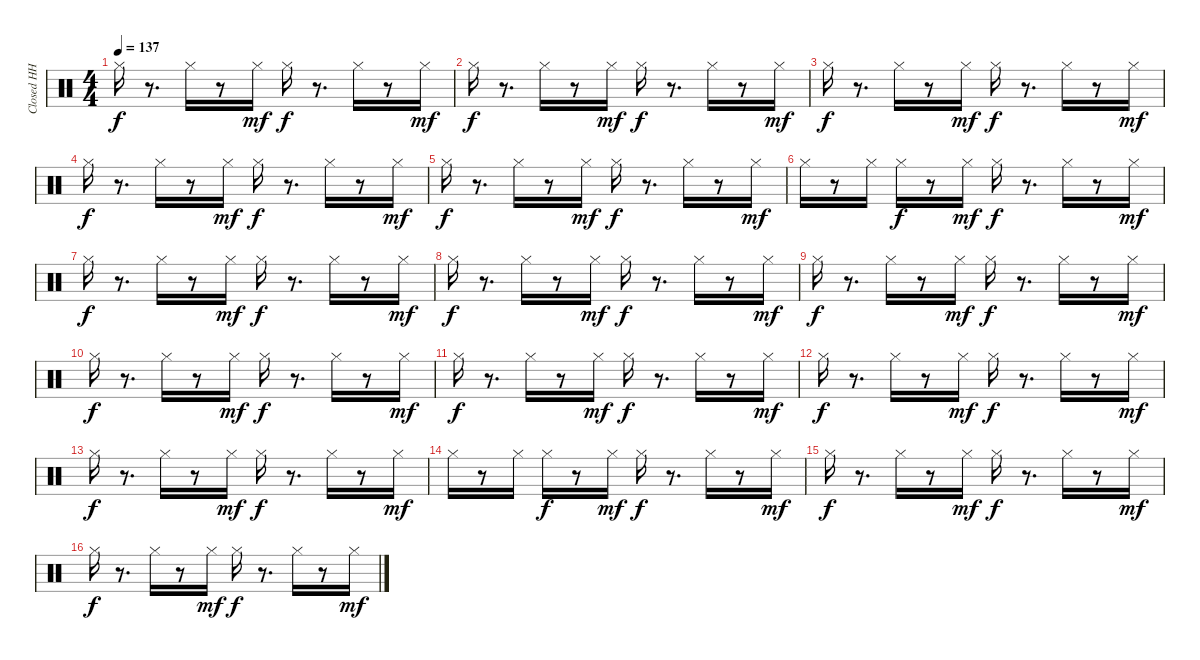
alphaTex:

\track ("Closed HH" "Closed HH") {instrument percussion}
\staff {score}
\articulation defaults
\ts (4 4)
\tempo 137
\clef neutral
\ks c "Hi-Hat (closed)".16{dy f}
r.8{d} "Hi-Hat (closed)".16 r.8 "Hi-Hat (closed)".16{dy mf} "Hi-Hat (closed)".16{dy f} r.8{d} "Hi-Hat (closed)".16 r.8 "Hi-Hat (closed)".16{dy mf} |
"Hi-Hat (closed)".16{dy f} r.8{d} "Hi-Hat (closed)".16 r.8 "Hi-Hat (closed)".16{dy mf} "Hi-Hat (closed)".16{dy f} r.8{d} "Hi-Hat (closed)".16 r.8 "Hi-Hat (closed)".16{dy mf} |
"Hi-Hat (closed)".16{dy f} r.8{d} "Hi-Hat (closed)".16 r.8 "Hi-Hat (closed)".16{dy mf} "Hi-Hat (closed)".16{dy f} r.8{d} "Hi-Hat (closed)".16 r.8 "Hi-Hat (closed)".16{dy mf} |
"Hi-Hat (closed)".16{dy f} r.8{d} "Hi-Hat (closed)".16 r.8 "Hi-Hat (closed)".16{dy mf} "Hi-Hat (closed)".16{dy f} r.8{d} "Hi-Hat (closed)".16 r.8 "Hi-Hat (closed)".16{dy mf} |
"Hi-Hat (closed)".16{dy f} r.8{d} "Hi-Hat (closed)".16 r.8 "Hi-Hat (closed)".16{dy mf} "Hi-Hat (closed)".16{dy f} r.8{d} "Hi-Hat (closed)".16 r.8 "Hi-Hat (closed)".16{dy mf} |
"Hi-Hat (closed)".16 r.8 "Hi-Hat (closed)".16 "Hi-Hat (closed)".16{dy f} r.8 "Hi-Hat (closed)".16{dy mf} "Hi-Hat (closed)".16{dy f} r.8{d} "Hi-Hat (closed)".16 r.8 "Hi-Hat (closed)".16{dy mf} |
"Hi-Hat (closed)".16{dy f} r.8{d} "Hi-Hat (closed)".16 r.8 "Hi-Hat (closed)".16{dy mf} "Hi-Hat (closed)".16{dy f} r.8{d} "Hi-Hat (closed)".16 r.8 "Hi-Hat (closed)".16{dy mf} |
"Hi-Hat (closed)".16{dy f} r.8{d} "Hi-Hat (closed)".16 r.8 "Hi-Hat (closed)".16{dy mf} "Hi-Hat (closed)".16{dy f} r.8{d} "Hi-Hat (closed)".16 r.8 "Hi-Hat (closed)".16{dy mf} |
"Hi-Hat (closed)".16{dy f} r.8{d} "Hi-Hat (closed)".16 r.8 "Hi-Hat (closed)".16{dy mf} "Hi-Hat (closed)".16{dy f} r.8{d} "Hi-Hat (closed)".16 r.8 "Hi-Hat (closed)".16{dy mf} |
"Hi-Hat (closed)".16{dy f} r.8{d} "Hi-Hat (closed)".16 r.8 "Hi-Hat (closed)".16{dy mf} "Hi-Hat (closed)".16{dy f} r.8{d} "Hi-Hat (closed)".16 r.8 "Hi-Hat (closed)".16{dy mf} |
"Hi-Hat (closed)".16{dy f} r.8{d} "Hi-Hat (closed)".16 r.8 "Hi-Hat (closed)".16{dy mf} "Hi-Hat (closed)".16{dy f} r.8{d} "Hi-Hat (closed)".16 r.8 "Hi-Hat (closed)".16{dy mf} |
"Hi-Hat (closed)".16{dy f} r.8{d} "Hi-Hat (closed)".16 r.8 "Hi-Hat (closed)".16{dy mf} "Hi-Hat (closed)".16{dy f} r.8{d} "Hi-Hat (closed)".16 r.8 "Hi-Hat (closed)".16{dy mf} |
"Hi-Hat (closed)".16{dy f} r.8{d} "Hi-Hat (closed)".16 r.8 "Hi-Hat (closed)".16{dy mf} "Hi-Hat (closed)".16{dy f} r.8{d} "Hi-Hat (closed)".16 r.8 "Hi-Hat (closed)".16{dy mf} |
"Hi-Hat (closed)".16 r.8 "Hi-Hat (closed)".16 "Hi-Hat (closed)".16{dy f} r.8 "Hi-Hat (closed)".16{dy mf} "Hi-Hat (closed)".16{dy f} r.8{d} "Hi-Hat (closed)".16 r.8 "Hi-Hat (closed)".16{dy mf} |
"Hi-Hat (closed)".16{dy f} r.8{d} "Hi-Hat (closed)".16 r.8 "Hi-Hat (closed)".16{dy mf} "Hi-Hat (closed)".16{dy f} r.8{d} "Hi-Hat (closed)".16 r.8 "Hi-Hat (closed)".16{dy mf} |
"Hi-Hat (closed)".16{dy f} r.8{d} "Hi-Hat (closed)".16 r.8 "Hi-Hat (closed)".16{dy mf} "Hi-Hat (closed)".16{dy f} r.8{d} "Hi-Hat (closed)".16 r.8 "Hi-Hat (closed)".16{dy mf}
